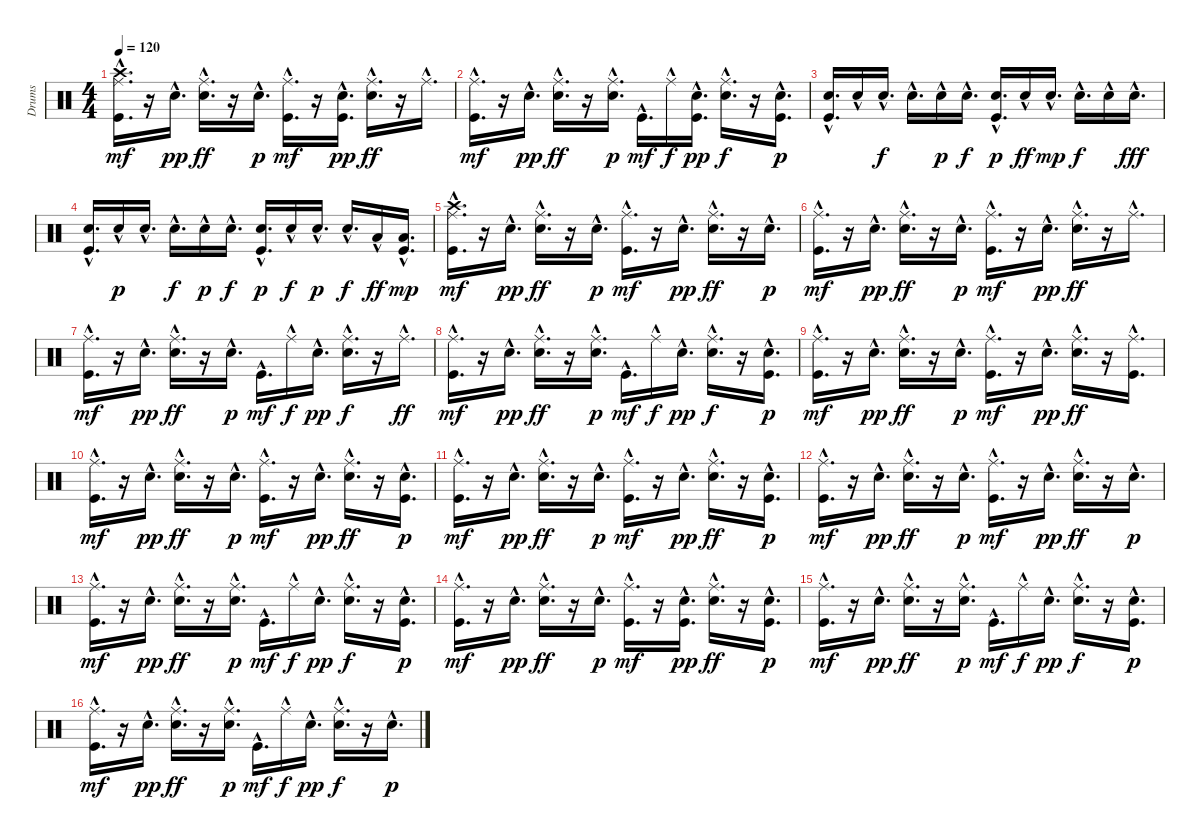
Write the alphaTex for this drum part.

\track ("Drums" "Drums") {instrument percussion}
\staff {score}
\articulation defaults
\ts (4 4)
\tempo 120
\clef neutral
\ks c
("Kick (hit)"{hac} "Ride (middle)"{hac} "Crash high (hit)"{hac}).16{d dy mf} r.16 "Snare (hit) 2"{hac}.16{d dy pp} ("Snare (hit) 2"{hac} "Ride (middle)"{hac}).16{d dy ff} r.16 "Snare (hit) 2"{hac}.16{d dy p} ("Kick (hit)"{hac} "Ride (middle)"{hac}).16{d dy mf} r.16 ("Kick (hit)"{hac} "Snare (hit) 2"{hac}).16{d dy pp} ("Snare (hit) 2"{hac} "Ride (middle)"{hac}).16{d dy ff} r.16 "Ride (middle)"{hac}.16{d} |
("Kick (hit)"{hac} "Ride (middle)"{hac}).16{d dy mf} r.16 "Snare (hit) 2"{hac}.16{d dy pp} ("Snare (hit) 2"{hac} "Ride (middle)"{hac}).16{d dy ff} r.16 ("Snare (hit) 2"{hac} "Ride (middle)"{hac}).16{d dy p} "Kick (hit)"{hac}.16{d dy mf} "Ride (middle)"{hac}.16{dy f} ("Kick (hit)"{hac} "Snare (hit) 2"{hac}).16{d dy pp} ("Snare (hit) 2"{hac} "Ride (middle)"{hac}).16{d dy f} r.16 ("Kick (hit)"{hac} "Snare (hit) 2"{hac}).16{d dy p} |
("Kick (hit)"{hac} "Snare (hit) 2"{hac}).16{d} "Snare (hit) 2"{hac}.16 "Snare (hit) 2"{hac}.16{d dy f} "Snare (hit) 2"{hac}.16{d} "Snare (hit) 2"{hac}.16{dy p} "Snare (hit) 2"{hac}.16{d dy f} ("Kick (hit)"{hac} "Snare (hit) 2"{hac}).16{d dy p} "Snare (hit) 2"{hac}.16{dy ff} "Snare (hit) 2"{hac}.16{d dy mp} "Snare (hit) 2"{hac}.16{d dy f} "Snare (hit) 2"{hac}.16 "Snare (hit) 2"{hac}.16{d dy fff} |
("Kick (hit)"{hac} "Snare (hit) 2"{hac}).16{d} "Snare (hit) 2"{hac}.16{dy p} "Snare (hit) 2"{hac}.16{d} "Snare (hit) 2"{hac}.16{d dy f} "Snare (hit) 2"{hac}.16{dy p} "Snare (hit) 2"{hac}.16{d dy f} ("Kick (hit)"{hac} "Snare (hit) 2"{hac}).16{d dy p} "Snare (hit) 2"{hac}.16{dy f} "Snare (hit) 2"{hac}.16{d dy p} "Snare (hit) 2"{hac}.16{d dy f} "Low Tom (hit)"{hac}.16{dy ff} ("Kick (hit)"{hac} "Low Floor Tom (hit)"{hac}).16{d dy mp} |
("Kick (hit)"{hac} "Ride (middle)"{hac} "Crash high (hit)"{hac}).16{d dy mf} r.16 "Snare (hit) 2"{hac}.16{d dy pp} ("Snare (hit) 2"{hac} "Ride (middle)"{hac}).16{d dy ff} r.16 "Snare (hit) 2"{hac}.16{d dy p} ("Kick (hit)"{hac} "Ride (middle)"{hac}).16{d dy mf} r.16 "Snare (hit) 2"{hac}.16{d dy pp} ("Snare (hit) 2"{hac} "Ride (middle)"{hac}).16{d dy ff} r.16 "Snare (hit) 2"{hac}.16{d dy p} |
("Kick (hit)"{hac} "Ride (middle)"{hac}).16{d dy mf} r.16 "Snare (hit) 2"{hac}.16{d dy pp} ("Snare (hit) 2"{hac} "Ride (middle)"{hac}).16{d dy ff} r.16 "Snare (hit) 2"{hac}.16{d dy p} ("Kick (hit)"{hac} "Ride (middle)"{hac}).16{d dy mf} r.16 "Snare (hit) 2"{hac}.16{d dy pp} ("Snare (hit) 2"{hac} "Ride (middle)"{hac}).16{d dy ff} r.16 "Ride (middle)"{hac}.16{d} |
("Kick (hit)"{hac} "Ride (middle)"{hac}).16{d dy mf} r.16 "Snare (hit) 2"{hac}.16{d dy pp} ("Snare (hit) 2"{hac} "Ride (middle)"{hac}).16{d dy ff} r.16 "Snare (hit) 2"{hac}.16{d dy p} "Kick (hit)"{hac}.16{d dy mf} "Ride (middle)"{hac}.16{dy f} "Snare (hit) 2"{hac}.16{d dy pp} ("Snare (hit) 2"{hac} "Ride (middle)"{hac}).16{d dy f} r.16 "Ride (middle)"{hac}.16{d dy ff} |
("Kick (hit)"{hac} "Ride (middle)"{hac}).16{d dy mf} r.16 "Snare (hit) 2"{hac}.16{d dy pp} ("Snare (hit) 2"{hac} "Ride (middle)"{hac}).16{d dy ff} r.16 ("Snare (hit) 2"{hac} "Ride (middle)"{hac}).16{d dy p} "Kick (hit)"{hac}.16{d dy mf} "Ride (middle)"{hac}.16{dy f} "Snare (hit) 2"{hac}.16{d dy pp} ("Snare (hit) 2"{hac} "Ride (middle)"{hac}).16{d dy f} r.16 ("Kick (hit)"{hac} "Snare (hit) 2"{hac}).16{d dy p} |
("Kick (hit)"{hac} "Ride (middle)"{hac}).16{d dy mf} r.16 "Snare (hit) 2"{hac}.16{d dy pp} ("Snare (hit) 2"{hac} "Ride (middle)"{hac}).16{d dy ff} r.16 "Snare (hit) 2"{hac}.16{d dy p} ("Kick (hit)"{hac} "Ride (middle)"{hac}).16{d dy mf} r.16 "Snare (hit) 2"{hac}.16{d dy pp} ("Snare (hit) 2"{hac} "Ride (middle)"{hac}).16{d dy ff} r.16 ("Kick (hit)"{hac} "Ride (middle)"{hac}).16{d} |
("Kick (hit)"{hac} "Ride (middle)"{hac}).16{d dy mf} r.16 "Snare (hit) 2"{hac}.16{d dy pp} ("Snare (hit) 2"{hac} "Ride (middle)"{hac}).16{d dy ff} r.16 "Snare (hit) 2"{hac}.16{d dy p} ("Kick (hit)"{hac} "Ride (middle)"{hac}).16{d dy mf} r.16 "Snare (hit) 2"{hac}.16{d dy pp} ("Snare (hit) 2"{hac} "Ride (middle)"{hac}).16{d dy ff} r.16 ("Kick (hit)"{hac} "Snare (hit) 2"{hac}).16{d dy p} |
("Kick (hit)"{hac} "Ride (middle)"{hac}).16{d dy mf} r.16 "Snare (hit) 2"{hac}.16{d dy pp} ("Snare (hit) 2"{hac} "Ride (middle)"{hac}).16{d dy ff} r.16 "Snare (hit) 2"{hac}.16{d dy p} ("Kick (hit)"{hac} "Ride (middle)"{hac}).16{d dy mf} r.16 "Snare (hit) 2"{hac}.16{d dy pp} ("Snare (hit) 2"{hac} "Ride (middle)"{hac}).16{d dy ff} r.16 ("Kick (hit)"{hac} "Snare (hit) 2"{hac}).16{d dy p} |
("Kick (hit)"{hac} "Ride (middle)"{hac}).16{d dy mf} r.16 "Snare (hit) 2"{hac}.16{d dy pp} ("Snare (hit) 2"{hac} "Ride (middle)"{hac}).16{d dy ff} r.16 "Snare (hit) 2"{hac}.16{d dy p} ("Kick (hit)"{hac} "Ride (middle)"{hac}).16{d dy mf} r.16 "Snare (hit) 2"{hac}.16{d dy pp} ("Snare (hit) 2"{hac} "Ride (middle)"{hac}).16{d dy ff} r.16 "Snare (hit) 2"{hac}.16{d dy p} |
("Kick (hit)"{hac} "Ride (middle)"{hac}).16{d dy mf} r.16 "Snare (hit) 2"{hac}.16{d dy pp} ("Snare (hit) 2"{hac} "Ride (middle)"{hac}).16{d dy ff} r.16 ("Snare (hit) 2"{hac} "Ride (middle)"{hac}).16{d dy p} "Kick (hit)"{hac}.16{d dy mf} "Ride (middle)"{hac}.16{dy f} "Snare (hit) 2"{hac}.16{d dy pp} ("Snare (hit) 2"{hac} "Ride (middle)"{hac}).16{d dy f} r.16 ("Kick (hit)"{hac} "Snare (hit) 2"{hac}).16{d dy p} |
("Kick (hit)"{hac} "Ride (middle)"{hac}).16{d dy mf} r.16 "Snare (hit) 2"{hac}.16{d dy pp} ("Snare (hit) 2"{hac} "Ride (middle)"{hac}).16{d dy ff} r.16 "Snare (hit) 2"{hac}.16{d dy p} ("Kick (hit)"{hac} "Ride (middle)"{hac}).16{d dy mf} r.16 ("Kick (hit)"{hac} "Snare (hit) 2"{hac}).16{d dy pp} ("Snare (hit) 2"{hac} "Ride (middle)"{hac}).16{d dy ff} r.16 ("Kick (hit)"{hac} "Snare (hit) 2"{hac}).16{d dy p} |
("Kick (hit)"{hac} "Ride (middle)"{hac}).16{d dy mf} r.16 "Snare (hit) 2"{hac}.16{d dy pp} ("Snare (hit) 2"{hac} "Ride (middle)"{hac}).16{d dy ff} r.16 ("Snare (hit) 2"{hac} "Ride (middle)"{hac}).16{d dy p} "Kick (hit)"{hac}.16{d dy mf} "Ride (middle)"{hac}.16{dy f} "Snare (hit) 2"{hac}.16{d dy pp} ("Snare (hit) 2"{hac} "Ride (middle)"{hac}).16{d dy f} r.16 ("Kick (hit)"{hac} "Snare (hit) 2"{hac}).16{d dy p} |
("Kick (hit)"{hac} "Ride (middle)"{hac}).16{d dy mf} r.16 "Snare (hit) 2"{hac}.16{d dy pp} ("Snare (hit) 2"{hac} "Ride (middle)"{hac}).16{d dy ff} r.16 ("Snare (hit) 2"{hac} "Ride (middle)"{hac}).16{d dy p} "Kick (hit)"{hac}.16{d dy mf} "Ride (middle)"{hac}.16{dy f} "Snare (hit) 2"{hac}.16{d dy pp} ("Snare (hit) 2"{hac} "Ride (middle)"{hac}).16{d dy f} r.16 "Snare (hit) 2"{hac}.16{d dy p}
